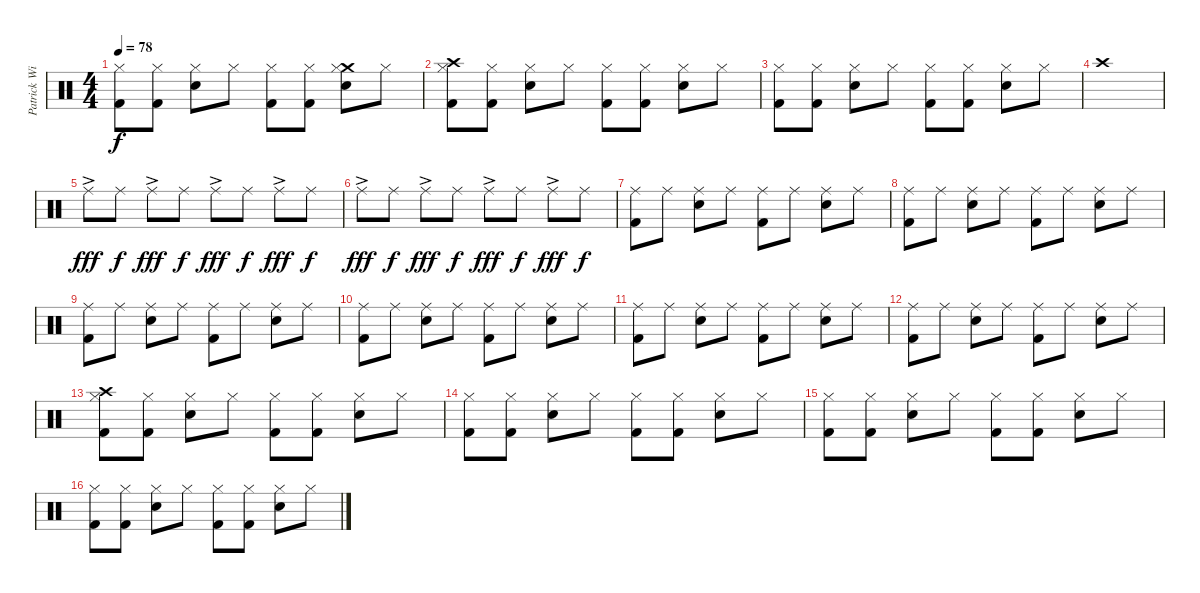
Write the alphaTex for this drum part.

\track ("Patrick Wilson" "Patrick Wi") {instrument percussion}
\staff {score}
\articulation defaults
\ts (4 4)
\tempo 78
\clef neutral
\ks c
("Kick (hit) 2" "Hi-Hat (closed)").8{dy f} ("Kick (hit) 2" "Hi-Hat (closed)").8 ("Snare (hit) 2" "Hi-Hat (closed)").8 "Hi-Hat (closed)".8 ("Kick (hit) 2" "Hi-Hat (closed)").8 ("Kick (hit) 2" "Hi-Hat (closed)").8 ("Crash medium (hit)" "Snare (hit) 2" "Hi-Hat (closed)").8 "Hi-Hat (closed)".8 |
("Crash high (hit)" "Kick (hit) 2" "Hi-Hat (closed)").8 ("Kick (hit) 2" "Hi-Hat (closed)").8 ("Snare (hit) 2" "Hi-Hat (closed)").8 "Hi-Hat (closed)".8 ("Kick (hit) 2" "Hi-Hat (closed)").8 ("Kick (hit) 2" "Hi-Hat (closed)").8 ("Snare (hit) 2" "Hi-Hat (closed)").8 "Hi-Hat (closed)".8 |
("Kick (hit) 2" "Hi-Hat (closed)").8 ("Kick (hit) 2" "Hi-Hat (closed)").8 ("Snare (hit) 2" "Hi-Hat (closed)").8 "Hi-Hat (closed)".8 ("Kick (hit) 2" "Hi-Hat (closed)").8 ("Kick (hit) 2" "Hi-Hat (closed)").8 ("Snare (hit) 2" "Hi-Hat (closed)").8 "Hi-Hat (closed)".8 |
"Crash high (hit)".1 |
"Ride (middle)"{ac}.8{dy fff} "Ride (middle)".8{dy f} "Ride (middle)"{ac}.8{dy fff} "Ride (middle)".8{dy f} "Ride (middle)"{ac}.8{dy fff} "Ride (middle)".8{dy f} "Ride (middle)"{ac}.8{dy fff} "Ride (middle)".8{dy f} |
"Ride (middle)"{ac}.8{dy fff} "Ride (middle)".8{dy f} "Ride (middle)"{ac}.8{dy fff} "Ride (middle)".8{dy f} "Ride (middle)"{ac}.8{dy fff} "Ride (middle)".8{dy f} "Ride (middle)"{ac}.8{dy fff} "Ride (middle)".8{dy f} |
("Ride (middle)" "Kick (hit) 2").8 "Ride (middle)".8 ("Ride (middle)" "Snare (hit) 2").8 "Ride (middle)".8 ("Ride (middle)" "Kick (hit) 2").8 "Ride (middle)".8 ("Ride (middle)" "Snare (hit) 2").8 "Ride (middle)".8 |
("Ride (middle)" "Kick (hit) 2").8 "Ride (middle)".8 ("Ride (middle)" "Snare (hit) 2").8 "Ride (middle)".8 ("Ride (middle)" "Kick (hit) 2").8 "Ride (middle)".8 ("Ride (middle)" "Snare (hit) 2").8 "Ride (middle)".8 |
("Ride (middle)" "Kick (hit) 2").8 "Ride (middle)".8 ("Ride (middle)" "Snare (hit) 2").8 "Ride (middle)".8 ("Ride (middle)" "Kick (hit) 2").8 "Ride (middle)".8 ("Ride (middle)" "Snare (hit) 2").8 "Ride (middle)".8 |
("Ride (middle)" "Kick (hit) 2").8 "Ride (middle)".8 ("Ride (middle)" "Snare (hit) 2").8 "Ride (middle)".8 ("Ride (middle)" "Kick (hit) 2").8 "Ride (middle)".8 ("Ride (middle)" "Snare (hit) 2").8 "Ride (middle)".8 |
("Ride (middle)" "Kick (hit) 2").8 "Ride (middle)".8 ("Ride (middle)" "Snare (hit) 2").8 "Ride (middle)".8 ("Ride (middle)" "Kick (hit) 2").8 "Ride (middle)".8 ("Ride (middle)" "Snare (hit) 2").8 "Ride (middle)".8 |
("Ride (middle)" "Kick (hit) 2").8 "Ride (middle)".8 ("Ride (middle)" "Snare (hit) 2").8 "Ride (middle)".8 ("Ride (middle)" "Kick (hit) 2").8 "Ride (middle)".8 ("Ride (middle)" "Snare (hit) 2").8 "Ride (middle)".8 |
("Crash high (hit)" "Kick (hit) 2" "Hi-Hat (closed)").8 ("Kick (hit) 2" "Hi-Hat (closed)").8 ("Snare (hit) 2" "Hi-Hat (closed)").8 "Hi-Hat (closed)".8 ("Kick (hit) 2" "Hi-Hat (closed)").8 ("Kick (hit) 2" "Hi-Hat (closed)").8 ("Snare (hit) 2" "Hi-Hat (closed)").8 "Hi-Hat (closed)".8 |
("Kick (hit) 2" "Hi-Hat (closed)").8 ("Kick (hit) 2" "Hi-Hat (closed)").8 ("Snare (hit) 2" "Hi-Hat (closed)").8 "Hi-Hat (closed)".8 ("Kick (hit) 2" "Hi-Hat (closed)").8 ("Kick (hit) 2" "Hi-Hat (closed)").8 ("Snare (hit) 2" "Hi-Hat (closed)").8 "Hi-Hat (closed)".8 |
("Kick (hit) 2" "Hi-Hat (closed)").8 ("Kick (hit) 2" "Hi-Hat (closed)").8 ("Snare (hit) 2" "Hi-Hat (closed)").8 "Hi-Hat (closed)".8 ("Kick (hit) 2" "Hi-Hat (closed)").8 ("Kick (hit) 2" "Hi-Hat (closed)").8 ("Snare (hit) 2" "Hi-Hat (closed)").8 "Hi-Hat (closed)".8 |
("Kick (hit) 2" "Hi-Hat (closed)").8 ("Kick (hit) 2" "Hi-Hat (closed)").8 ("Snare (hit) 2" "Hi-Hat (closed)").8 "Hi-Hat (closed)".8 ("Kick (hit) 2" "Hi-Hat (closed)").8 ("Kick (hit) 2" "Hi-Hat (closed)").8 ("Snare (hit) 2" "Hi-Hat (closed)").8 "Hi-Hat (closed)".8
